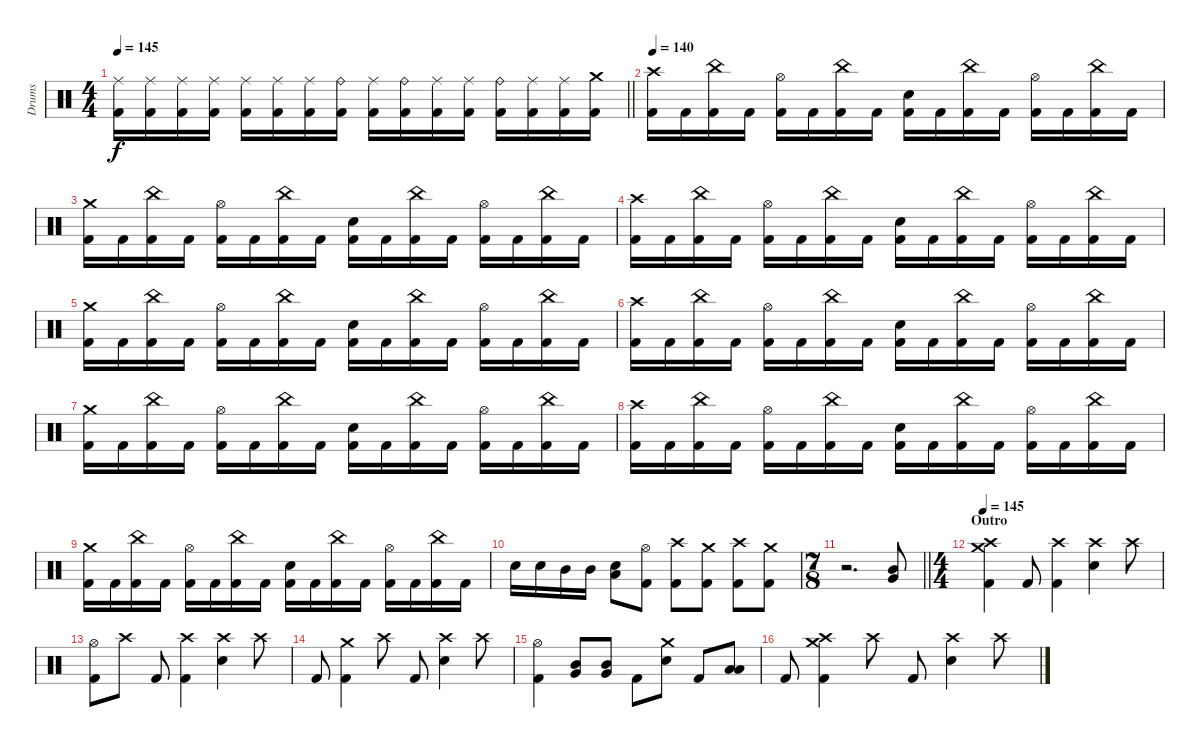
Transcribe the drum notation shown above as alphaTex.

\track ("Drums" "Drums") {instrument percussion}
\staff {score}
\articulation defaults
\ts (4 4)
\tempo 145
\clef neutral
\barLineRight lightlight
\ks c
("Ride (middle)" "Kick (hit) 2").16{dy f} ("Ride (middle)" "Kick (hit) 2").16 ("Ride (middle)" "Kick (hit) 2").16 ("Ride (middle)" "Kick (hit) 2").16 ("Ride (middle)" "Kick (hit) 2").16 ("Ride (middle)" "Kick (hit) 2").16 ("Ride (middle)" "Kick (hit) 2").16 ("Ride (bell)" "Kick (hit) 2").16 ("Ride (middle)" "Kick (hit) 2").16 ("Ride (bell)" "Kick (hit) 2").16 ("Ride (middle)" "Kick (hit) 2").16 ("Ride (middle)" "Kick (hit) 2").16 ("Ride (bell)" "Kick (hit) 2").16 ("Ride (middle)" "Kick (hit) 2").16 ("Ride (middle)" "Kick (hit) 2").16 ("Crash medium (hit)" "Kick (hit) 2").16 |
\tempo 140
("Crash high (hit)" "Kick (hit) 2").16 "Kick (hit) 2".16 ("China (hit)" "Kick (hit) 2").16 "Kick (hit) 2".16 ("Hi-Hat (open)" "Kick (hit) 2").16 "Kick (hit) 2".16 ("China (hit)" "Kick (hit) 2").16 "Kick (hit) 2".16 ("Electric Snare (hit)" "Kick (hit) 2").16 "Kick (hit) 2".16 ("China (hit)" "Kick (hit) 2").16 "Kick (hit) 2".16 ("Hi-Hat (open)" "Kick (hit) 2").16 "Kick (hit) 2".16 ("China (hit)" "Kick (hit) 2").16 "Kick (hit) 2".16 |
("Crash medium (hit)" "Kick (hit) 2").16 "Kick (hit) 2".16 ("China (hit)" "Kick (hit) 2").16 "Kick (hit) 2".16 ("Hi-Hat (open)" "Kick (hit) 2").16 "Kick (hit) 2".16 ("China (hit)" "Kick (hit) 2").16 "Kick (hit) 2".16 ("Electric Snare (hit)" "Kick (hit) 2").16 "Kick (hit) 2".16 ("China (hit)" "Kick (hit) 2").16 "Kick (hit) 2".16 ("Hi-Hat (open)" "Kick (hit) 2").16 "Kick (hit) 2".16 ("China (hit)" "Kick (hit) 2").16 "Kick (hit) 2".16 |
("Crash high (hit)" "Kick (hit) 2").16 "Kick (hit) 2".16 ("China (hit)" "Kick (hit) 2").16 "Kick (hit) 2".16 ("Hi-Hat (open)" "Kick (hit) 2").16 "Kick (hit) 2".16 ("China (hit)" "Kick (hit) 2").16 "Kick (hit) 2".16 ("Electric Snare (hit)" "Kick (hit) 2").16 "Kick (hit) 2".16 ("China (hit)" "Kick (hit) 2").16 "Kick (hit) 2".16 ("Hi-Hat (open)" "Kick (hit) 2").16 "Kick (hit) 2".16 ("China (hit)" "Kick (hit) 2").16 "Kick (hit) 2".16 |
("Crash medium (hit)" "Kick (hit) 2").16 "Kick (hit) 2".16 ("China (hit)" "Kick (hit) 2").16 "Kick (hit) 2".16 ("Hi-Hat (open)" "Kick (hit) 2").16 "Kick (hit) 2".16 ("China (hit)" "Kick (hit) 2").16 "Kick (hit) 2".16 ("Electric Snare (hit)" "Kick (hit) 2").16 "Kick (hit) 2".16 ("China (hit)" "Kick (hit) 2").16 "Kick (hit) 2".16 ("Hi-Hat (open)" "Kick (hit) 2").16 "Kick (hit) 2".16 ("China (hit)" "Kick (hit) 2").16 "Kick (hit) 2".16 |
("Crash high (hit)" "Kick (hit) 2").16 "Kick (hit) 2".16 ("China (hit)" "Kick (hit) 2").16 "Kick (hit) 2".16 ("Hi-Hat (open)" "Kick (hit) 2").16 "Kick (hit) 2".16 ("China (hit)" "Kick (hit) 2").16 "Kick (hit) 2".16 ("Electric Snare (hit)" "Kick (hit) 2").16 "Kick (hit) 2".16 ("China (hit)" "Kick (hit) 2").16 "Kick (hit) 2".16 ("Hi-Hat (open)" "Kick (hit) 2").16 "Kick (hit) 2".16 ("China (hit)" "Kick (hit) 2").16 "Kick (hit) 2".16 |
("Crash medium (hit)" "Kick (hit) 2").16 "Kick (hit) 2".16 ("China (hit)" "Kick (hit) 2").16 "Kick (hit) 2".16 ("Hi-Hat (open)" "Kick (hit) 2").16 "Kick (hit) 2".16 ("China (hit)" "Kick (hit) 2").16 "Kick (hit) 2".16 ("Electric Snare (hit)" "Kick (hit) 2").16 "Kick (hit) 2".16 ("China (hit)" "Kick (hit) 2").16 "Kick (hit) 2".16 ("Hi-Hat (open)" "Kick (hit) 2").16 "Kick (hit) 2".16 ("China (hit)" "Kick (hit) 2").16 "Kick (hit) 2".16 |
("Crash high (hit)" "Kick (hit) 2").16 "Kick (hit) 2".16 ("China (hit)" "Kick (hit) 2").16 "Kick (hit) 2".16 ("Hi-Hat (open)" "Kick (hit) 2").16 "Kick (hit) 2".16 ("China (hit)" "Kick (hit) 2").16 "Kick (hit) 2".16 ("Electric Snare (hit)" "Kick (hit) 2").16 "Kick (hit) 2".16 ("China (hit)" "Kick (hit) 2").16 "Kick (hit) 2".16 ("Hi-Hat (open)" "Kick (hit) 2").16 "Kick (hit) 2".16 ("China (hit)" "Kick (hit) 2").16 "Kick (hit) 2".16 |
("Crash medium (hit)" "Kick (hit) 2").16 "Kick (hit) 2".16 ("China (hit)" "Kick (hit) 2").16 "Kick (hit) 2".16 ("Hi-Hat (open)" "Kick (hit) 2").16 "Kick (hit) 2".16 ("China (hit)" "Kick (hit) 2").16 "Kick (hit) 2".16 ("Electric Snare (hit)" "Kick (hit) 2").16 "Kick (hit) 2".16 ("China (hit)" "Kick (hit) 2").16 "Kick (hit) 2".16 ("Hi-Hat (open)" "Kick (hit) 2").16 "Kick (hit) 2".16 ("China (hit)" "Kick (hit) 2").16 "Kick (hit) 2".16 |
"Electric Snare (hit)".16 "Electric Snare (hit)".16 "Mid Tom (hit)".16 "Mid Tom (hit)".16 ("Low Tom (hit)" "Electric Snare (hit)").8 ("Hi-Hat (open)" "Kick (hit) 2").8 ("Crash high (hit)" "Kick (hit) 2").8 ("Crash medium (hit)" "Kick (hit) 2").8 ("Crash high (hit)" "Kick (hit) 2").8 ("Crash medium (hit)" "Kick (hit) 2").8 |
\ts (7 8)
\barLineRight lightlight
r.2{d volume 0} ("Mid Tom (hit)" "Very Low Tom (hit)").8{volume 13} |
\ts (4 4)
\section ("" "Outro")
\tempo 145
("Crash medium (hit)" "Crash high (hit)" "Kick (hit) 2").4 "Kick (hit) 2".8 ("Crash high (hit)" "Kick (hit) 2").4 ("Crash high (hit)" "Electric Snare (hit)").4 "Crash high (hit)".8 |
("Hi-Hat (open)" "Kick (hit) 2").8 "Crash high (hit)".8 "Kick (hit) 2".8 ("Crash high (hit)" "Kick (hit) 2").4 ("Crash high (hit)" "Electric Snare (hit)").4 "Crash high (hit)".8 |
"Kick (hit) 2".8 ("Crash medium (hit)" "Kick (hit) 2").4 "Crash high (hit)".8 "Kick (hit) 2".8 ("Crash high (hit)" "Electric Snare (hit)").4 "Crash high (hit)".8 |
("Hi-Hat (open)" "Kick (hit) 2").4 ("Mid Tom (hit)" "Very Low Tom (hit)").8 ("Mid Tom (hit)" "Very Low Tom (hit)").8 "Kick (hit) 2".8 ("Crash medium (hit)" "Electric Snare (hit)").8 "Kick (hit) 2".8 ("Low Tom (hit)" "Low Floor Tom (hit)").8 |
"Kick (hit) 2".8 ("Crash medium (hit)" "Crash high (hit)" "Kick (hit) 2").4 "Crash high (hit)".8 "Kick (hit) 2".8 ("Crash high (hit)" "Electric Snare (hit)").4 "Crash high (hit)".8
